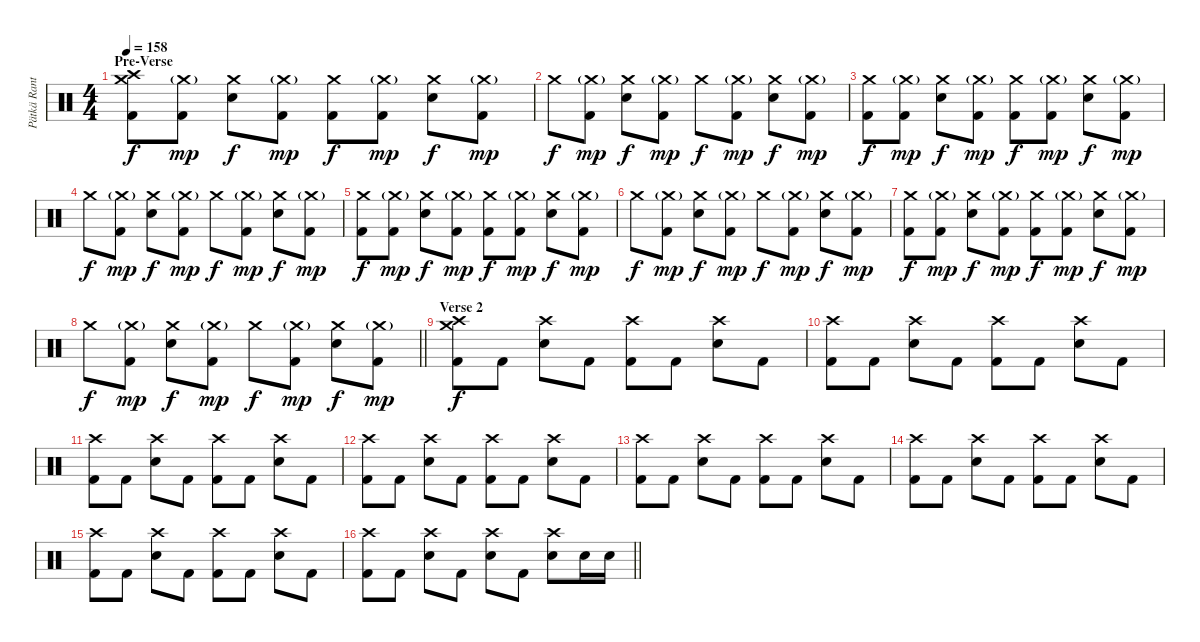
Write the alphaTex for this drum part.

\track ("Pätkä Rantala (Drums)" "Pätkä Rant") {instrument percussion}
\staff {score}
\articulation defaults
\ts (4 4)
\section ("" "Pre-Verse")
\tempo 158
\clef neutral
\ks c
("Crash high (hit)" "Crash medium (hit)" "Kick (hit) 2").8{dy f} ("Crash medium (hit)"{g} "Kick (hit) 2").8{dy mp} ("Crash medium (hit)" "Snare (hit) 2").8{dy f} ("Crash medium (hit)"{g} "Kick (hit) 2").8{dy mp} ("Crash medium (hit)" "Kick (hit) 2").8{dy f} ("Crash medium (hit)"{g} "Kick (hit) 2").8{dy mp} ("Crash medium (hit)" "Snare (hit) 2").8{dy f} ("Crash medium (hit)"{g} "Kick (hit) 2").8{dy mp} |
"Crash medium (hit)".8{dy f} ("Crash medium (hit)"{g} "Kick (hit) 2").8{dy mp} ("Crash medium (hit)" "Snare (hit) 2").8{dy f} ("Crash medium (hit)"{g} "Kick (hit) 2").8{dy mp} "Crash medium (hit)".8{dy f} ("Crash medium (hit)"{g} "Kick (hit) 2").8{dy mp} ("Crash medium (hit)" "Snare (hit) 2").8{dy f} ("Crash medium (hit)"{g} "Kick (hit) 2").8{dy mp} |
("Crash medium (hit)" "Kick (hit) 2").8{dy f} ("Crash medium (hit)"{g} "Kick (hit) 2").8{dy mp} ("Crash medium (hit)" "Snare (hit) 2").8{dy f} ("Crash medium (hit)"{g} "Kick (hit) 2").8{dy mp} ("Crash medium (hit)" "Kick (hit) 2").8{dy f} ("Crash medium (hit)"{g} "Kick (hit) 2").8{dy mp} ("Crash medium (hit)" "Snare (hit) 2").8{dy f} ("Crash medium (hit)"{g} "Kick (hit) 2").8{dy mp} |
"Crash medium (hit)".8{dy f} ("Crash medium (hit)"{g} "Kick (hit) 2").8{dy mp} ("Crash medium (hit)" "Snare (hit) 2").8{dy f} ("Crash medium (hit)"{g} "Kick (hit) 2").8{dy mp} "Crash medium (hit)".8{dy f} ("Crash medium (hit)"{g} "Kick (hit) 2").8{dy mp} ("Crash medium (hit)" "Snare (hit) 2").8{dy f} ("Crash medium (hit)"{g} "Kick (hit) 2").8{dy mp} |
("Crash medium (hit)" "Kick (hit) 2").8{dy f} ("Crash medium (hit)"{g} "Kick (hit) 2").8{dy mp} ("Crash medium (hit)" "Snare (hit) 2").8{dy f} ("Crash medium (hit)"{g} "Kick (hit) 2").8{dy mp} ("Crash medium (hit)" "Kick (hit) 2").8{dy f} ("Crash medium (hit)"{g} "Kick (hit) 2").8{dy mp} ("Crash medium (hit)" "Snare (hit) 2").8{dy f} ("Crash medium (hit)"{g} "Kick (hit) 2").8{dy mp} |
"Crash medium (hit)".8{dy f} ("Crash medium (hit)"{g} "Kick (hit) 2").8{dy mp} ("Crash medium (hit)" "Snare (hit) 2").8{dy f} ("Crash medium (hit)"{g} "Kick (hit) 2").8{dy mp} "Crash medium (hit)".8{dy f} ("Crash medium (hit)"{g} "Kick (hit) 2").8{dy mp} ("Crash medium (hit)" "Snare (hit) 2").8{dy f} ("Crash medium (hit)"{g} "Kick (hit) 2").8{dy mp} |
("Crash medium (hit)" "Kick (hit) 2").8{dy f} ("Crash medium (hit)"{g} "Kick (hit) 2").8{dy mp} ("Crash medium (hit)" "Snare (hit) 2").8{dy f} ("Crash medium (hit)"{g} "Kick (hit) 2").8{dy mp} ("Crash medium (hit)" "Kick (hit) 2").8{dy f} ("Crash medium (hit)"{g} "Kick (hit) 2").8{dy mp} ("Crash medium (hit)" "Snare (hit) 2").8{dy f} ("Crash medium (hit)"{g} "Kick (hit) 2").8{dy mp} |
\barLineRight lightlight "Crash medium (hit)".8{dy f}
("Crash medium (hit)"{g} "Kick (hit) 2").8{dy mp} ("Crash medium (hit)" "Snare (hit) 2").8{dy f} ("Crash medium (hit)"{g} "Kick (hit) 2").8{dy mp} "Crash medium (hit)".8{dy f} ("Crash medium (hit)"{g} "Kick (hit) 2").8{dy mp} ("Crash medium (hit)" "Snare (hit) 2").8{dy f} ("Crash medium (hit)"{g} "Kick (hit) 2").8{dy mp} |
\section ("" "Verse 2")
("Crash medium (hit)" "Crash high (hit)" "Kick (hit) 2").8{dy f} "Kick (hit) 2".8 ("Crash high (hit)" "Snare (hit) 2").8 "Kick (hit) 2".8 ("Crash high (hit)" "Kick (hit) 2").8 "Kick (hit) 2".8 ("Crash high (hit)" "Snare (hit) 2").8 "Kick (hit) 2".8 |
("Crash high (hit)" "Kick (hit) 2").8 "Kick (hit) 2".8 ("Crash high (hit)" "Snare (hit) 2").8 "Kick (hit) 2".8 ("Crash high (hit)" "Kick (hit) 2").8 "Kick (hit) 2".8 ("Crash high (hit)" "Snare (hit) 2").8 "Kick (hit) 2".8 |
("Crash high (hit)" "Kick (hit) 2").8 "Kick (hit) 2".8 ("Crash high (hit)" "Snare (hit) 2").8 "Kick (hit) 2".8 ("Crash high (hit)" "Kick (hit) 2").8 "Kick (hit) 2".8 ("Crash high (hit)" "Snare (hit) 2").8 "Kick (hit) 2".8 |
("Crash high (hit)" "Kick (hit) 2").8 "Kick (hit) 2".8 ("Crash high (hit)" "Snare (hit) 2").8 "Kick (hit) 2".8 ("Crash high (hit)" "Kick (hit) 2").8 "Kick (hit) 2".8 ("Crash high (hit)" "Snare (hit) 2").8 "Kick (hit) 2".8 |
("Crash high (hit)" "Kick (hit) 2").8 "Kick (hit) 2".8 ("Crash high (hit)" "Snare (hit) 2").8 "Kick (hit) 2".8 ("Crash high (hit)" "Kick (hit) 2").8 "Kick (hit) 2".8 ("Crash high (hit)" "Snare (hit) 2").8 "Kick (hit) 2".8 |
("Crash high (hit)" "Kick (hit) 2").8 "Kick (hit) 2".8 ("Crash high (hit)" "Snare (hit) 2").8 "Kick (hit) 2".8 ("Crash high (hit)" "Kick (hit) 2").8 "Kick (hit) 2".8 ("Crash high (hit)" "Snare (hit) 2").8 "Kick (hit) 2".8 |
("Crash high (hit)" "Kick (hit) 2").8 "Kick (hit) 2".8 ("Crash high (hit)" "Snare (hit) 2").8 "Kick (hit) 2".8 ("Crash high (hit)" "Kick (hit) 2").8 "Kick (hit) 2".8 ("Crash high (hit)" "Snare (hit) 2").8 "Kick (hit) 2".8 |
\barLineRight lightlight
("Crash high (hit)" "Kick (hit) 2").8 "Kick (hit) 2".8 ("Crash high (hit)" "Snare (hit) 2").8 "Kick (hit) 2".8 ("Crash high (hit)" "Snare (hit) 2").8 "Kick (hit) 2".8 ("Crash high (hit)" "Snare (hit) 2").8 "Snare (hit) 2".16 "Snare (hit) 2".16
